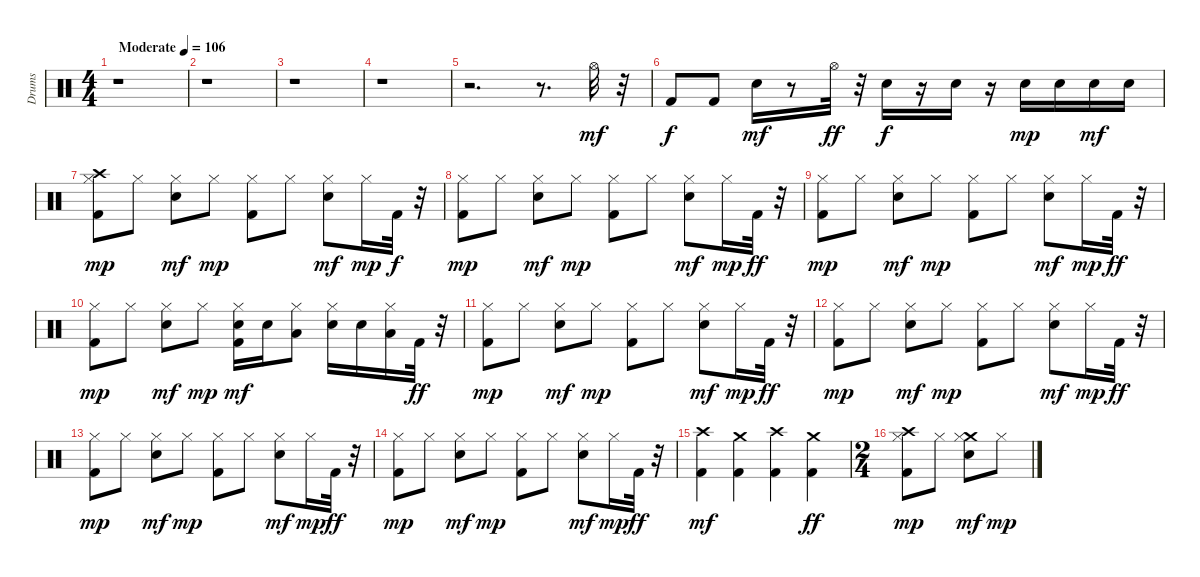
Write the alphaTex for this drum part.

\track ("Drums" "Drums") {instrument percussion}
\staff {score}
\articulation defaults
\ts (4 4)
\tempo (106 "Moderate")
\clef neutral
\ks c
r.1{dy mf} |
r.1 |
r.1 |
r.1 |
r.2{d} r.8{d} "Hi-Hat (open)".32 r.32 |
"Kick (hit) 2".8{dy f} "Kick (hit) 2".8 "Snare (hit) 2".16{dy mf} r.8 "Hi-Hat (open)".32{dy ff} r.32 "Snare (hit) 2".16{dy f} r.16 "Snare (hit) 2".16 r.16 "Snare (hit) 2".16{dy mp} "Snare (hit) 2".16 "Snare (hit) 2".16{dy mf} "Snare (hit) 2".16 |
("Crash high (hit)" "Kick (hit) 2" "Hi-Hat (closed)").8{dy mp} "Hi-Hat (closed)".8 ("Hi-Hat (closed)" "Snare (hit) 2").8{dy mf} "Hi-Hat (closed)".8{dy mp} ("Hi-Hat (closed)" "Kick (hit) 2").8 "Hi-Hat (closed)".8 ("Hi-Hat (closed)" "Snare (hit) 2").8{dy mf} "Hi-Hat (closed)".16{dy mp} "Kick (hit) 2".32{dy f} r.32 |
("Kick (hit) 2" "Hi-Hat (closed)").8{dy mp} "Hi-Hat (closed)".8 ("Hi-Hat (closed)" "Snare (hit) 2").8{dy mf} "Hi-Hat (closed)".8{dy mp} ("Hi-Hat (closed)" "Kick (hit) 2").8 "Hi-Hat (closed)".8 ("Hi-Hat (closed)" "Snare (hit) 2").8{dy mf} "Hi-Hat (closed)".16{dy mp} "Kick (hit) 2".32{dy ff} r.32 |
("Kick (hit) 2" "Hi-Hat (closed)").8{dy mp} "Hi-Hat (closed)".8 ("Hi-Hat (closed)" "Snare (hit) 2").8{dy mf} "Hi-Hat (closed)".8{dy mp} ("Hi-Hat (closed)" "Kick (hit) 2").8 "Hi-Hat (closed)".8 ("Hi-Hat (closed)" "Snare (hit) 2").8{dy mf} "Hi-Hat (closed)".16{dy mp} "Kick (hit) 2".32{dy ff} r.32 |
("Kick (hit) 2" "Hi-Hat (closed)").8{dy mp} "Hi-Hat (closed)".8 ("Hi-Hat (closed)" "Snare (hit) 2").8{dy mf} "Hi-Hat (closed)".8{dy mp} ("Hi-Hat (closed)" "Kick (hit) 2" "Snare (hit) 2").16{dy mf} "Snare (hit) 2".16 ("Hi-Hat (closed)" "Low Tom (hit)").8 ("Hi-Hat (closed)" "Snare (hit) 2").16 "Snare (hit) 2".16 ("Hi-Hat (closed)" "Low Tom (hit)").16 "Kick (hit) 2".32{dy ff} r.32 |
("Kick (hit) 2" "Hi-Hat (closed)").8{dy mp} "Hi-Hat (closed)".8 ("Hi-Hat (closed)" "Snare (hit) 2").8{dy mf} "Hi-Hat (closed)".8{dy mp} ("Hi-Hat (closed)" "Kick (hit) 2").8 "Hi-Hat (closed)".8 ("Hi-Hat (closed)" "Snare (hit) 2").8{dy mf} "Hi-Hat (closed)".16{dy mp} "Kick (hit) 2".32{dy ff} r.32 |
("Kick (hit) 2" "Hi-Hat (closed)").8{dy mp} "Hi-Hat (closed)".8 ("Hi-Hat (closed)" "Snare (hit) 2").8{dy mf} "Hi-Hat (closed)".8{dy mp} ("Hi-Hat (closed)" "Kick (hit) 2").8 "Hi-Hat (closed)".8 ("Hi-Hat (closed)" "Snare (hit) 2").8{dy mf} "Hi-Hat (closed)".16{dy mp} "Kick (hit) 2".32{dy ff} r.32 |
("Kick (hit) 2" "Hi-Hat (closed)").8{dy mp} "Hi-Hat (closed)".8 ("Hi-Hat (closed)" "Snare (hit) 2").8{dy mf} "Hi-Hat (closed)".8{dy mp} ("Hi-Hat (closed)" "Kick (hit) 2").8 "Hi-Hat (closed)".8 ("Hi-Hat (closed)" "Snare (hit) 2").8{dy mf} "Hi-Hat (closed)".16{dy mp} "Kick (hit) 2".32{dy ff} r.32 |
("Kick (hit) 2" "Hi-Hat (closed)").8{dy mp} "Hi-Hat (closed)".8 ("Hi-Hat (closed)" "Snare (hit) 2").8{dy mf} "Hi-Hat (closed)".8{dy mp} ("Hi-Hat (closed)" "Kick (hit) 2").8 "Hi-Hat (closed)".8 ("Hi-Hat (closed)" "Snare (hit) 2").8{dy mf} "Hi-Hat (closed)".16{dy mp} "Kick (hit) 2".32{dy ff} r.32 |
("Crash high (hit)" "Kick (hit) 2").4{dy mf} ("Kick (hit) 2" "Crash medium (hit)").4 ("Kick (hit) 2" "Crash high (hit)").4 ("Kick (hit) 2" "Crash medium (hit)").4{dy ff} |
\ts (2 4)
("Crash high (hit)" "Kick (hit) 2" "Hi-Hat (closed)").8{dy mp} "Hi-Hat (closed)".8 ("Crash medium (hit)" "Hi-Hat (closed)" "Snare (hit) 2").8{dy mf} "Hi-Hat (closed)".8{dy mp}
